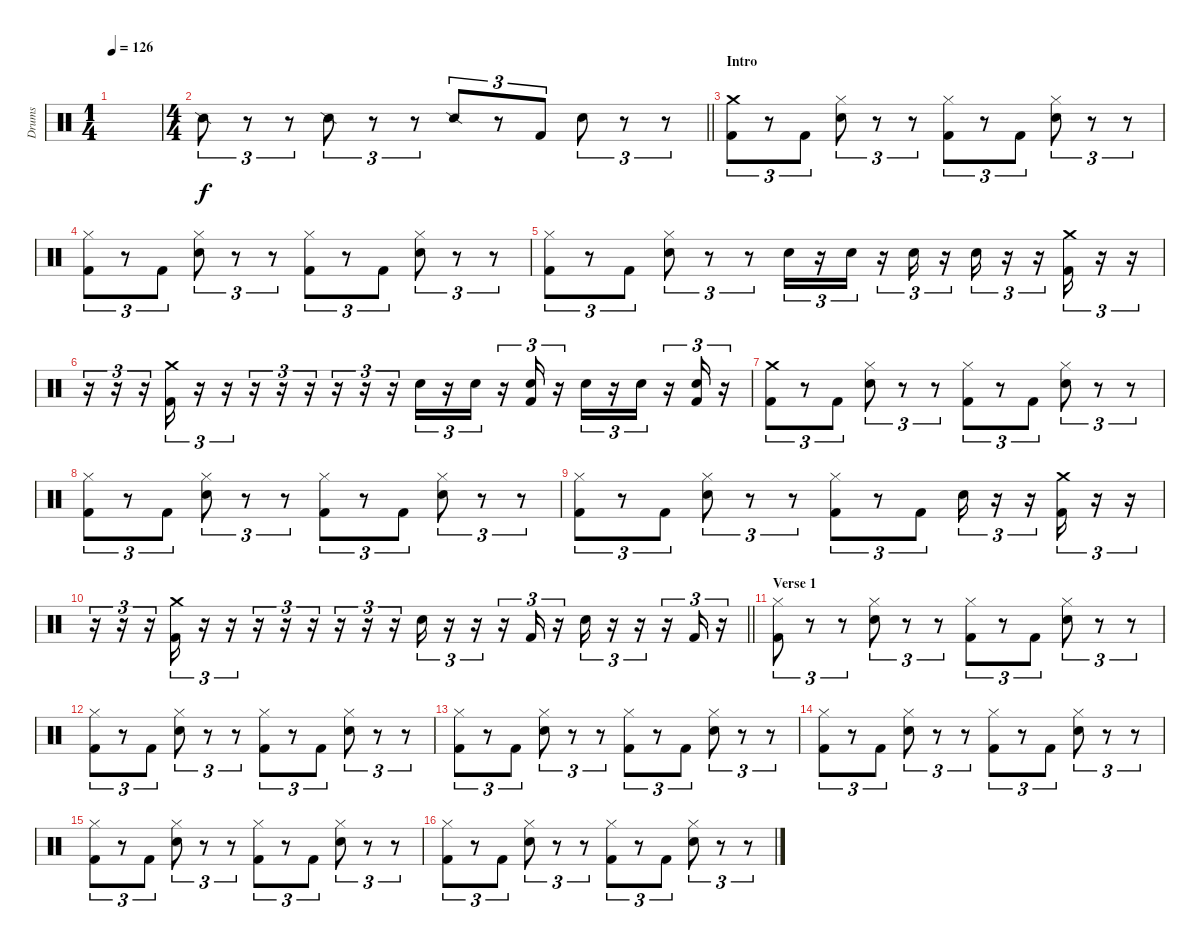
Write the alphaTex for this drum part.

\track ("Drums" "Drums") {instrument percussion}
\staff {score}
\articulation defaults
\ts (1 4)
\tempo 126
\clef neutral
\ks c
|
\ts (4 4)
\barLineRight lightlight "Snare (side stick) 2".8{tu (3 2)}
r.8{tu (3 2)} r.8{tu (3 2)} "Snare (side stick) 2".8{tu (3 2)} r.8{tu (3 2)} r.8{tu (3 2)} "Snare (side stick) 2".8{tu (3 2)} r.8{tu (3 2)} "Kick (hit) 2".8{tu (3 2)} "Snare (hit) 2".8{tu (3 2)} r.8{tu (3 2)} r.8{tu (3 2)} |
\section ("" "Intro")
("Crash medium (hit)" "Kick (hit) 2").8{tu (3 2)} r.8{tu (3 2)} "Kick (hit) 2".8{tu (3 2)} ("Hi-Hat (closed)" "Snare (hit) 2").8{tu (3 2)} r.8{tu (3 2)} r.8{tu (3 2)} ("Hi-Hat (closed)" "Kick (hit) 2").8{tu (3 2)} r.8{tu (3 2)} "Kick (hit) 2".8{tu (3 2)} ("Hi-Hat (closed)" "Snare (hit) 2").8{tu (3 2)} r.8{tu (3 2)} r.8{tu (3 2)} |
("Hi-Hat (closed)" "Kick (hit) 2").8{tu (3 2)} r.8{tu (3 2)} "Kick (hit) 2".8{tu (3 2)} ("Hi-Hat (closed)" "Snare (hit) 2").8{tu (3 2)} r.8{tu (3 2)} r.8{tu (3 2)} ("Hi-Hat (closed)" "Kick (hit) 2").8{tu (3 2)} r.8{tu (3 2)} "Kick (hit) 2".8{tu (3 2)} ("Hi-Hat (closed)" "Snare (hit) 2").8{tu (3 2)} r.8{tu (3 2)} r.8{tu (3 2)} |
("Hi-Hat (closed)" "Kick (hit) 2").8{tu (3 2)} r.8{tu (3 2)} "Kick (hit) 2".8{tu (3 2)} ("Hi-Hat (closed)" "Snare (hit) 2").8{tu (3 2)} r.8{tu (3 2)} r.8{tu (3 2)} "Snare (hit) 2".16{tu (3 2)} r.16{tu (3 2)} "Snare (hit) 2".16{tu (3 2)} r.16{tu (3 2)} "Snare (hit) 2".16{tu (3 2)} r.16{tu (3 2)} "Snare (hit) 2".16{tu (3 2)} r.16{tu (3 2)} r.16{tu (3 2)} ("Crash medium (hit)" "Kick (hit) 2").16{tu (3 2)} r.16{tu (3 2)} r.16{tu (3 2)} |
r.16{tu (3 2)} r.16{tu (3 2)} r.16{tu (3 2)} ("Crash medium (hit)" "Kick (hit) 2").16{tu (3 2)} r.16{tu (3 2)} r.16{tu (3 2)} r.16{tu (3 2)} r.16{tu (3 2)} r.16{tu (3 2)} r.16{tu (3 2)} r.16{tu (3 2)} r.16{tu (3 2)} "Snare (hit) 2".16{tu (3 2)} r.16{tu (3 2)} "Snare (hit) 2".16{tu (3 2)} r.16{tu (3 2)} ("Snare (hit) 2" "Kick (hit) 2").16{tu (3 2)} r.16{tu (3 2)} "Snare (hit) 2".16{tu (3 2)} r.16{tu (3 2)} "Snare (hit) 2".16{tu (3 2)} r.16{tu (3 2)} ("Snare (hit) 2" "Kick (hit) 2").16{tu (3 2)} r.16{tu (3 2)} |
("Crash medium (hit)" "Kick (hit) 2").8{tu (3 2)} r.8{tu (3 2)} "Kick (hit) 2".8{tu (3 2)} ("Hi-Hat (closed)" "Snare (hit) 2").8{tu (3 2)} r.8{tu (3 2)} r.8{tu (3 2)} ("Hi-Hat (closed)" "Kick (hit) 2").8{tu (3 2)} r.8{tu (3 2)} "Kick (hit) 2".8{tu (3 2)} ("Hi-Hat (closed)" "Snare (hit) 2").8{tu (3 2)} r.8{tu (3 2)} r.8{tu (3 2)} |
("Hi-Hat (closed)" "Kick (hit) 2").8{tu (3 2)} r.8{tu (3 2)} "Kick (hit) 2".8{tu (3 2)} ("Hi-Hat (closed)" "Snare (hit) 2").8{tu (3 2)} r.8{tu (3 2)} r.8{tu (3 2)} ("Hi-Hat (closed)" "Kick (hit) 2").8{tu (3 2)} r.8{tu (3 2)} "Kick (hit) 2".8{tu (3 2)} ("Hi-Hat (closed)" "Snare (hit) 2").8{tu (3 2)} r.8{tu (3 2)} r.8{tu (3 2)} |
("Hi-Hat (closed)" "Kick (hit) 2").8{tu (3 2)} r.8{tu (3 2)} "Kick (hit) 2".8{tu (3 2)} ("Hi-Hat (closed)" "Snare (hit) 2").8{tu (3 2)} r.8{tu (3 2)} r.8{tu (3 2)} ("Hi-Hat (closed)" "Kick (hit) 2").8{tu (3 2)} r.8{tu (3 2)} "Kick (hit) 2".8{tu (3 2)} "Snare (hit) 2".16{tu (3 2)} r.16{tu (3 2)} r.16{tu (3 2)} ("Crash medium (hit)" "Kick (hit) 2").16{tu (3 2)} r.16{tu (3 2)} r.16{tu (3 2)} |
\barLineRight lightlight
r.16{tu (3 2)} r.16{tu (3 2)} r.16{tu (3 2)} ("Crash medium (hit)" "Kick (hit) 2").16{tu (3 2)} r.16{tu (3 2)} r.16{tu (3 2)} r.16{tu (3 2)} r.16{tu (3 2)} r.16{tu (3 2)} r.16{tu (3 2)} r.16{tu (3 2)} r.16{tu (3 2)} "Snare (hit) 2".16{tu (3 2)} r.16{tu (3 2)} r.16{tu (3 2)} r.16{tu (3 2)} "Kick (hit) 2".16{tu (3 2)} r.16{tu (3 2)} "Snare (hit) 2".16{tu (3 2)} r.16{tu (3 2)} r.16{tu (3 2)} r.16{tu (3 2)} "Kick (hit) 2".16{tu (3 2)} r.16{tu (3 2)} |
\section ("" "Verse 1")
("Hi-Hat (closed)" "Kick (hit) 2").8{tu (3 2)} r.8{tu (3 2)} r.8{tu (3 2)} ("Hi-Hat (closed)" "Snare (hit) 2").8{tu (3 2)} r.8{tu (3 2)} r.8{tu (3 2)} ("Hi-Hat (closed)" "Kick (hit) 2").8{tu (3 2)} r.8{tu (3 2)} "Kick (hit) 2".8{tu (3 2)} ("Hi-Hat (closed)" "Snare (hit) 2").8{tu (3 2)} r.8{tu (3 2)} r.8{tu (3 2)} |
("Hi-Hat (closed)" "Kick (hit) 2").8{tu (3 2)} r.8{tu (3 2)} "Kick (hit) 2".8{tu (3 2)} ("Hi-Hat (closed)" "Snare (hit) 2").8{tu (3 2)} r.8{tu (3 2)} r.8{tu (3 2)} ("Hi-Hat (closed)" "Kick (hit) 2").8{tu (3 2)} r.8{tu (3 2)} "Kick (hit) 2".8{tu (3 2)} ("Hi-Hat (closed)" "Snare (hit) 2").8{tu (3 2)} r.8{tu (3 2)} r.8{tu (3 2)} |
("Hi-Hat (closed)" "Kick (hit) 2").8{tu (3 2)} r.8{tu (3 2)} "Kick (hit) 2".8{tu (3 2)} ("Hi-Hat (closed)" "Snare (hit) 2").8{tu (3 2)} r.8{tu (3 2)} r.8{tu (3 2)} ("Hi-Hat (closed)" "Kick (hit) 2").8{tu (3 2)} r.8{tu (3 2)} "Kick (hit) 2".8{tu (3 2)} ("Hi-Hat (closed)" "Snare (hit) 2").8{tu (3 2)} r.8{tu (3 2)} r.8{tu (3 2)} |
("Hi-Hat (closed)" "Kick (hit) 2").8{tu (3 2)} r.8{tu (3 2)} "Kick (hit) 2".8{tu (3 2)} ("Hi-Hat (closed)" "Snare (hit) 2").8{tu (3 2)} r.8{tu (3 2)} r.8{tu (3 2)} ("Hi-Hat (closed)" "Kick (hit) 2").8{tu (3 2)} r.8{tu (3 2)} "Kick (hit) 2".8{tu (3 2)} ("Hi-Hat (closed)" "Snare (hit) 2").8{tu (3 2)} r.8{tu (3 2)} r.8{tu (3 2)} |
("Hi-Hat (closed)" "Kick (hit) 2").8{tu (3 2)} r.8{tu (3 2)} "Kick (hit) 2".8{tu (3 2)} ("Hi-Hat (closed)" "Snare (hit) 2").8{tu (3 2)} r.8{tu (3 2)} r.8{tu (3 2)} ("Hi-Hat (closed)" "Kick (hit) 2").8{tu (3 2)} r.8{tu (3 2)} "Kick (hit) 2".8{tu (3 2)} ("Hi-Hat (closed)" "Snare (hit) 2").8{tu (3 2)} r.8{tu (3 2)} r.8{tu (3 2)} |
("Hi-Hat (closed)" "Kick (hit) 2").8{tu (3 2)} r.8{tu (3 2)} "Kick (hit) 2".8{tu (3 2)} ("Hi-Hat (closed)" "Snare (hit) 2").8{tu (3 2)} r.8{tu (3 2)} r.8{tu (3 2)} ("Hi-Hat (closed)" "Kick (hit) 2").8{tu (3 2)} r.8{tu (3 2)} "Kick (hit) 2".8{tu (3 2)} ("Hi-Hat (closed)" "Snare (hit) 2").8{tu (3 2)} r.8{tu (3 2)} r.8{tu (3 2)}
